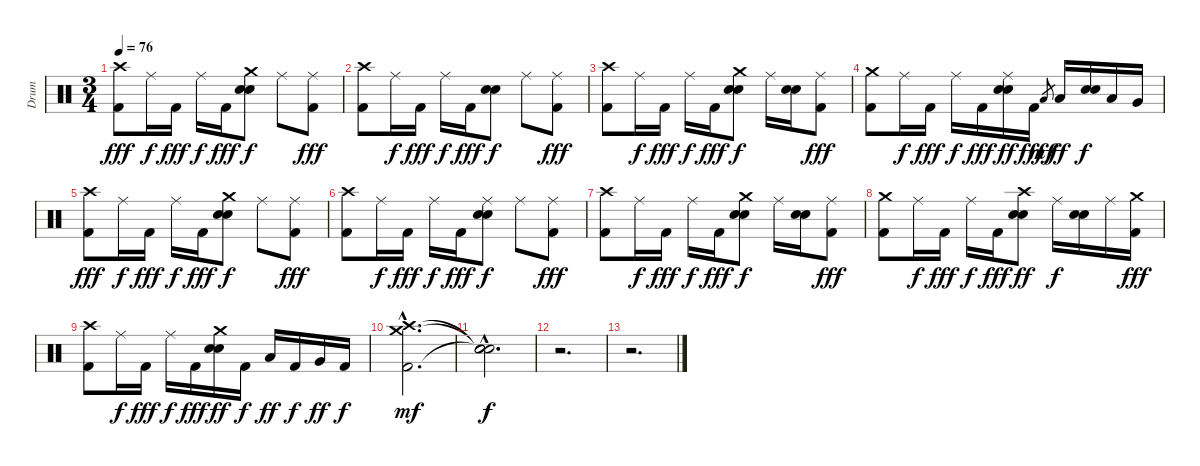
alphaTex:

\track ("Drum" "Drum") {instrument percussion}
\staff {score}
\articulation defaults
\ts (3 4)
\section ("" "")
\tempo 76
\clef neutral
\ks c
("Crash high (hit)" "Kick (hit) 2").8{dy fff} "Ride (middle)".16{dy f} "Kick (hit) 2".16{dy fff} "Ride (middle)".16{dy f} "Kick (hit) 2".16{dy fff} ("Crash medium (hit)" "Snare (hit) 2" "Electric Snare (hit)").8{dy f} "Ride (middle)".8 ("Ride (middle)" "Kick (hit) 2").8{dy fff} |
("Crash high (hit)" "Kick (hit) 2").8 "Ride (middle)".16{dy f} "Kick (hit) 2".16{dy fff} "Ride (middle)".16{dy f} "Kick (hit) 2".16{dy fff} ("Snare (hit) 2" "Electric Snare (hit)").8{dy f} "Ride (middle)".8 ("Ride (middle)" "Kick (hit) 2").8{dy fff} |
("Crash high (hit)" "Kick (hit) 2").8 "Ride (middle)".16{dy f} "Kick (hit) 2".16{dy fff} "Ride (middle)".16{dy f} "Kick (hit) 2".16{dy fff} ("Crash medium (hit)" "Snare (hit) 2" "Electric Snare (hit)").8{dy f} "Ride (middle)".16 ("Snare (hit) 2" "Electric Snare (hit)").16 ("Ride (middle)" "Kick (hit) 2").8{dy fff} |
("Crash medium (hit)" "Kick (hit) 2").8 "Ride (middle)".16{dy f} "Kick (hit) 2".16{dy fff} "Ride (middle)".16{dy f} "Kick (hit) 2".16{dy fff} ("Ride (middle)" "Snare (hit) 2" "Electric Snare (hit)").16{dy ff} "Kick (hit) 2".16{dy fff} "Low Tom (hit)".8{gr dy mf} "Low Tom (hit)".16{dy ff} ("Snare (hit) 2" "Electric Snare (hit)").16{dy f} "Low Tom (hit)".16 "Very Low Tom (hit)".16 |
("Crash high (hit)" "Kick (hit) 2").8{dy fff} "Ride (middle)".16{dy f} "Kick (hit) 2".16{dy fff} "Ride (middle)".16{dy f} "Kick (hit) 2".16{dy fff} ("Crash medium (hit)" "Snare (hit) 2" "Electric Snare (hit)").8{dy f} "Ride (middle)".8 ("Ride (middle)" "Kick (hit) 2").8{dy fff} |
("Crash high (hit)" "Kick (hit) 2").8 "Ride (middle)".16{dy f} "Kick (hit) 2".16{dy fff} "Ride (middle)".16{dy f} "Kick (hit) 2".16{dy fff} ("Ride (middle)" "Snare (hit) 2" "Electric Snare (hit)").8{dy f} "Ride (middle)".8 ("Ride (middle)" "Kick (hit) 2").8{dy fff} |
("Crash high (hit)" "Kick (hit) 2").8 "Ride (middle)".16{dy f} "Kick (hit) 2".16{dy fff} "Ride (middle)".16{dy f} "Kick (hit) 2".16{dy fff} ("Crash medium (hit)" "Snare (hit) 2" "Electric Snare (hit)").8{dy f} "Ride (middle)".16 ("Snare (hit) 2" "Electric Snare (hit)").16 ("Ride (middle)" "Kick (hit) 2").8{dy fff} |
("Crash medium (hit)" "Kick (hit) 2").8 "Ride (middle)".16{dy f} "Kick (hit) 2".16{dy fff} "Ride (middle)".16{dy f} "Kick (hit) 2".16{dy fff} ("Crash high (hit)" "Snare (hit) 2" "Electric Snare (hit)").8{dy ff} "Ride (middle)".16{dy f} ("Snare (hit) 2" "Electric Snare (hit)").16 "Ride (middle)".16 ("Crash medium (hit)" "Kick (hit) 2").16{dy fff} |
("Crash high (hit)" "Kick (hit) 2").8 "Ride (middle)".16{dy f} "Kick (hit) 2".16{dy fff} "Ride (middle)".16{dy f} "Kick (hit) 2".16{dy fff} ("Crash medium (hit)" "Snare (hit) 2" "Electric Snare (hit)").16{dy ff} "Kick (hit) 2".16{dy f} "Low Tom (hit)".16{dy ff} "Kick (hit) 2".16{dy f} "Very Low Tom (hit)".16{dy ff} "Kick (hit) 2".16{dy f} |
("Crash medium (hit)"{hac} "Crash high (hit)"{hac} "Kick (hit) 2"{hac}).2{d dy mf} |
("Snare (hit)"{hac t} "Snare (hit)"{hac t} "Snare (hit)"{hac t}).2{d dy f} |
r.2{d} |
r.2{d}
